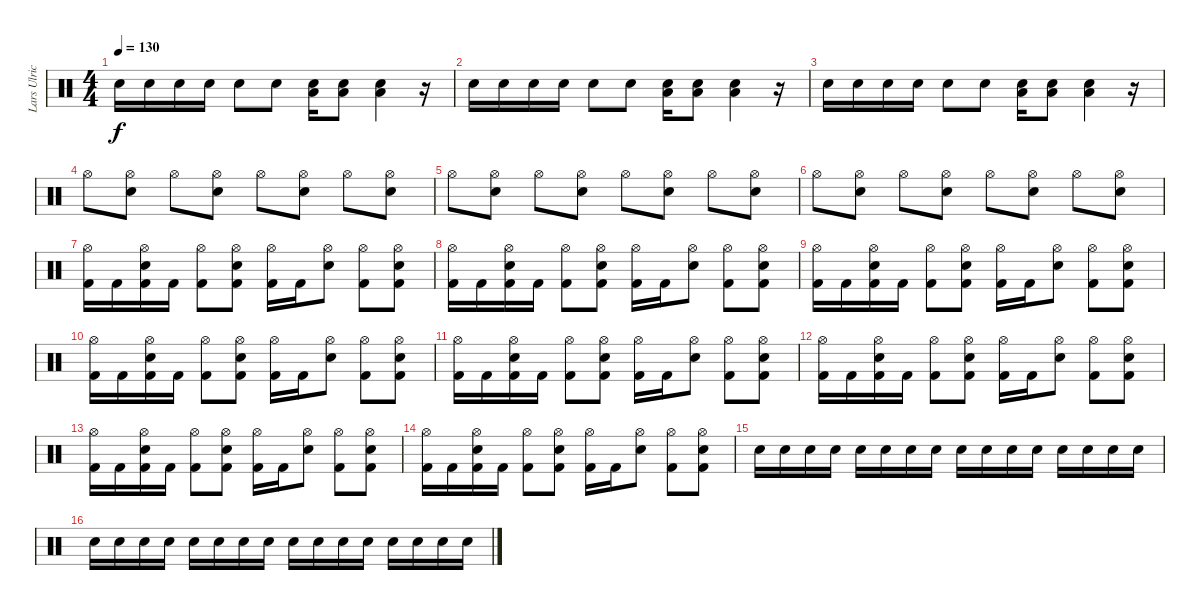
\track ("Lars Ulrich" "Lars Ulric") {instrument percussion}
\staff {score}
\articulation defaults
\ts (4 4)
\tempo 130
\clef neutral
\ks c "Electric Snare (hit)".16{dy f} "Electric Snare (hit)".16 "Electric Snare (hit)".16 "Electric Snare (hit)".16 "Electric Snare (hit)".8 "Electric Snare (hit)".8
("Electric Snare (hit)" "Low Floor Tom (hit)").16 ("Electric Snare (hit)" "Low Floor Tom (hit)").8 ("Electric Snare (hit)" "Low Floor Tom (hit)").4 r.16 |
"Electric Snare (hit)".16 "Electric Snare (hit)".16 "Electric Snare (hit)".16 "Electric Snare (hit)".16 "Electric Snare (hit)".8 "Electric Snare (hit)".8 ("Electric Snare (hit)" "Low Floor Tom (hit)").16 ("Electric Snare (hit)" "Low Floor Tom (hit)").8 ("Electric Snare (hit)" "Low Floor Tom (hit)").4 r.16 |
"Electric Snare (hit)".16 "Electric Snare (hit)".16 "Electric Snare (hit)".16 "Electric Snare (hit)".16 "Electric Snare (hit)".8 "Electric Snare (hit)".8 ("Electric Snare (hit)" "Low Floor Tom (hit)").16 ("Electric Snare (hit)" "Low Floor Tom (hit)").8 ("Electric Snare (hit)" "Low Floor Tom (hit)").4 r.16 |
"Hi-Hat (open)".8 ("Hi-Hat (open)" "Electric Snare (hit)").8 "Hi-Hat (open)".8 ("Hi-Hat (open)" "Electric Snare (hit)").8 "Hi-Hat (open)".8 ("Hi-Hat (open)" "Electric Snare (hit)").8 "Hi-Hat (open)".8 ("Hi-Hat (open)" "Electric Snare (hit)").8 |
"Hi-Hat (open)".8 ("Hi-Hat (open)" "Electric Snare (hit)").8 "Hi-Hat (open)".8 ("Hi-Hat (open)" "Electric Snare (hit)").8 "Hi-Hat (open)".8 ("Hi-Hat (open)" "Electric Snare (hit)").8 "Hi-Hat (open)".8 ("Hi-Hat (open)" "Electric Snare (hit)").8 |
"Hi-Hat (open)".8 ("Hi-Hat (open)" "Electric Snare (hit)").8 "Hi-Hat (open)".8 ("Hi-Hat (open)" "Electric Snare (hit)").8 "Hi-Hat (open)".8 ("Hi-Hat (open)" "Electric Snare (hit)").8 "Hi-Hat (open)".8 ("Hi-Hat (open)" "Electric Snare (hit)").8 |
("Hi-Hat (open)" "Kick (hit) 2").16 "Kick (hit) 2".16 ("Hi-Hat (open)" "Electric Snare (hit)" "Kick (hit) 2").16 "Kick (hit) 2".16 ("Hi-Hat (open)" "Kick (hit) 2").8 ("Hi-Hat (open)" "Electric Snare (hit)" "Kick (hit) 2").8 ("Hi-Hat (open)" "Kick (hit) 2").16 "Kick (hit) 2".16 ("Hi-Hat (open)" "Electric Snare (hit)").8 ("Hi-Hat (open)" "Kick (hit) 2").8 ("Hi-Hat (open)" "Electric Snare (hit)" "Kick (hit) 2").8 |
("Hi-Hat (open)" "Kick (hit) 2").16 "Kick (hit) 2".16 ("Hi-Hat (open)" "Electric Snare (hit)" "Kick (hit) 2").16 "Kick (hit) 2".16 ("Hi-Hat (open)" "Kick (hit) 2").8 ("Hi-Hat (open)" "Electric Snare (hit)" "Kick (hit) 2").8 ("Hi-Hat (open)" "Kick (hit) 2").16 "Kick (hit) 2".16 ("Hi-Hat (open)" "Electric Snare (hit)").8 ("Hi-Hat (open)" "Kick (hit) 2").8 ("Hi-Hat (open)" "Electric Snare (hit)" "Kick (hit) 2").8 |
("Hi-Hat (open)" "Kick (hit) 2").16 "Kick (hit) 2".16 ("Hi-Hat (open)" "Electric Snare (hit)" "Kick (hit) 2").16 "Kick (hit) 2".16 ("Hi-Hat (open)" "Kick (hit) 2").8 ("Hi-Hat (open)" "Electric Snare (hit)" "Kick (hit) 2").8 ("Hi-Hat (open)" "Kick (hit) 2").16 "Kick (hit) 2".16 ("Hi-Hat (open)" "Electric Snare (hit)").8 ("Hi-Hat (open)" "Kick (hit) 2").8 ("Hi-Hat (open)" "Electric Snare (hit)" "Kick (hit) 2").8 |
("Hi-Hat (open)" "Kick (hit) 2").16 "Kick (hit) 2".16 ("Hi-Hat (open)" "Electric Snare (hit)" "Kick (hit) 2").16 "Kick (hit) 2".16 ("Hi-Hat (open)" "Kick (hit) 2").8 ("Hi-Hat (open)" "Electric Snare (hit)" "Kick (hit) 2").8 ("Hi-Hat (open)" "Kick (hit) 2").16 "Kick (hit) 2".16 ("Hi-Hat (open)" "Electric Snare (hit)").8 ("Hi-Hat (open)" "Kick (hit) 2").8 ("Hi-Hat (open)" "Electric Snare (hit)" "Kick (hit) 2").8 |
("Hi-Hat (open)" "Kick (hit) 2").16 "Kick (hit) 2".16 ("Hi-Hat (open)" "Electric Snare (hit)" "Kick (hit) 2").16 "Kick (hit) 2".16 ("Hi-Hat (open)" "Kick (hit) 2").8 ("Hi-Hat (open)" "Electric Snare (hit)" "Kick (hit) 2").8 ("Hi-Hat (open)" "Kick (hit) 2").16 "Kick (hit) 2".16 ("Hi-Hat (open)" "Electric Snare (hit)").8 ("Hi-Hat (open)" "Kick (hit) 2").8 ("Hi-Hat (open)" "Electric Snare (hit)" "Kick (hit) 2").8 |
("Hi-Hat (open)" "Kick (hit) 2").16 "Kick (hit) 2".16 ("Hi-Hat (open)" "Electric Snare (hit)" "Kick (hit) 2").16 "Kick (hit) 2".16 ("Hi-Hat (open)" "Kick (hit) 2").8 ("Hi-Hat (open)" "Electric Snare (hit)" "Kick (hit) 2").8 ("Hi-Hat (open)" "Kick (hit) 2").16 "Kick (hit) 2".16 ("Hi-Hat (open)" "Electric Snare (hit)").8 ("Hi-Hat (open)" "Kick (hit) 2").8 ("Hi-Hat (open)" "Electric Snare (hit)" "Kick (hit) 2").8 |
("Hi-Hat (open)" "Kick (hit) 2").16 "Kick (hit) 2".16 ("Hi-Hat (open)" "Electric Snare (hit)" "Kick (hit) 2").16 "Kick (hit) 2".16 ("Hi-Hat (open)" "Kick (hit) 2").8 ("Hi-Hat (open)" "Electric Snare (hit)" "Kick (hit) 2").8 ("Hi-Hat (open)" "Kick (hit) 2").16 "Kick (hit) 2".16 ("Hi-Hat (open)" "Electric Snare (hit)").8 ("Hi-Hat (open)" "Kick (hit) 2").8 ("Hi-Hat (open)" "Electric Snare (hit)" "Kick (hit) 2").8 |
("Hi-Hat (open)" "Kick (hit) 2").16 "Kick (hit) 2".16 ("Hi-Hat (open)" "Electric Snare (hit)" "Kick (hit) 2").16 "Kick (hit) 2".16 ("Hi-Hat (open)" "Kick (hit) 2").8 ("Hi-Hat (open)" "Electric Snare (hit)" "Kick (hit) 2").8 ("Hi-Hat (open)" "Kick (hit) 2").16 "Kick (hit) 2".16 ("Hi-Hat (open)" "Electric Snare (hit)").8 ("Hi-Hat (open)" "Kick (hit) 2").8 ("Hi-Hat (open)" "Electric Snare (hit)" "Kick (hit) 2").8 |
"Electric Snare (hit)".16 "Electric Snare (hit)".16 "Electric Snare (hit)".16 "Electric Snare (hit)".16 "Electric Snare (hit)".16 "Electric Snare (hit)".16 "Electric Snare (hit)".16 "Electric Snare (hit)".16 "Electric Snare (hit)".16 "Electric Snare (hit)".16 "Electric Snare (hit)".16 "Electric Snare (hit)".16 "Electric Snare (hit)".16 "Electric Snare (hit)".16 "Electric Snare (hit)".16 "Electric Snare (hit)".16 |
"Electric Snare (hit)".16 "Electric Snare (hit)".16 "Electric Snare (hit)".16 "Electric Snare (hit)".16 "Electric Snare (hit)".16 "Electric Snare (hit)".16 "Electric Snare (hit)".16 "Electric Snare (hit)".16 "Electric Snare (hit)".16 "Electric Snare (hit)".16 "Electric Snare (hit)".16 "Electric Snare (hit)".16 "Electric Snare (hit)".16 "Electric Snare (hit)".16 "Electric Snare (hit)".16 "Electric Snare (hit)".16
